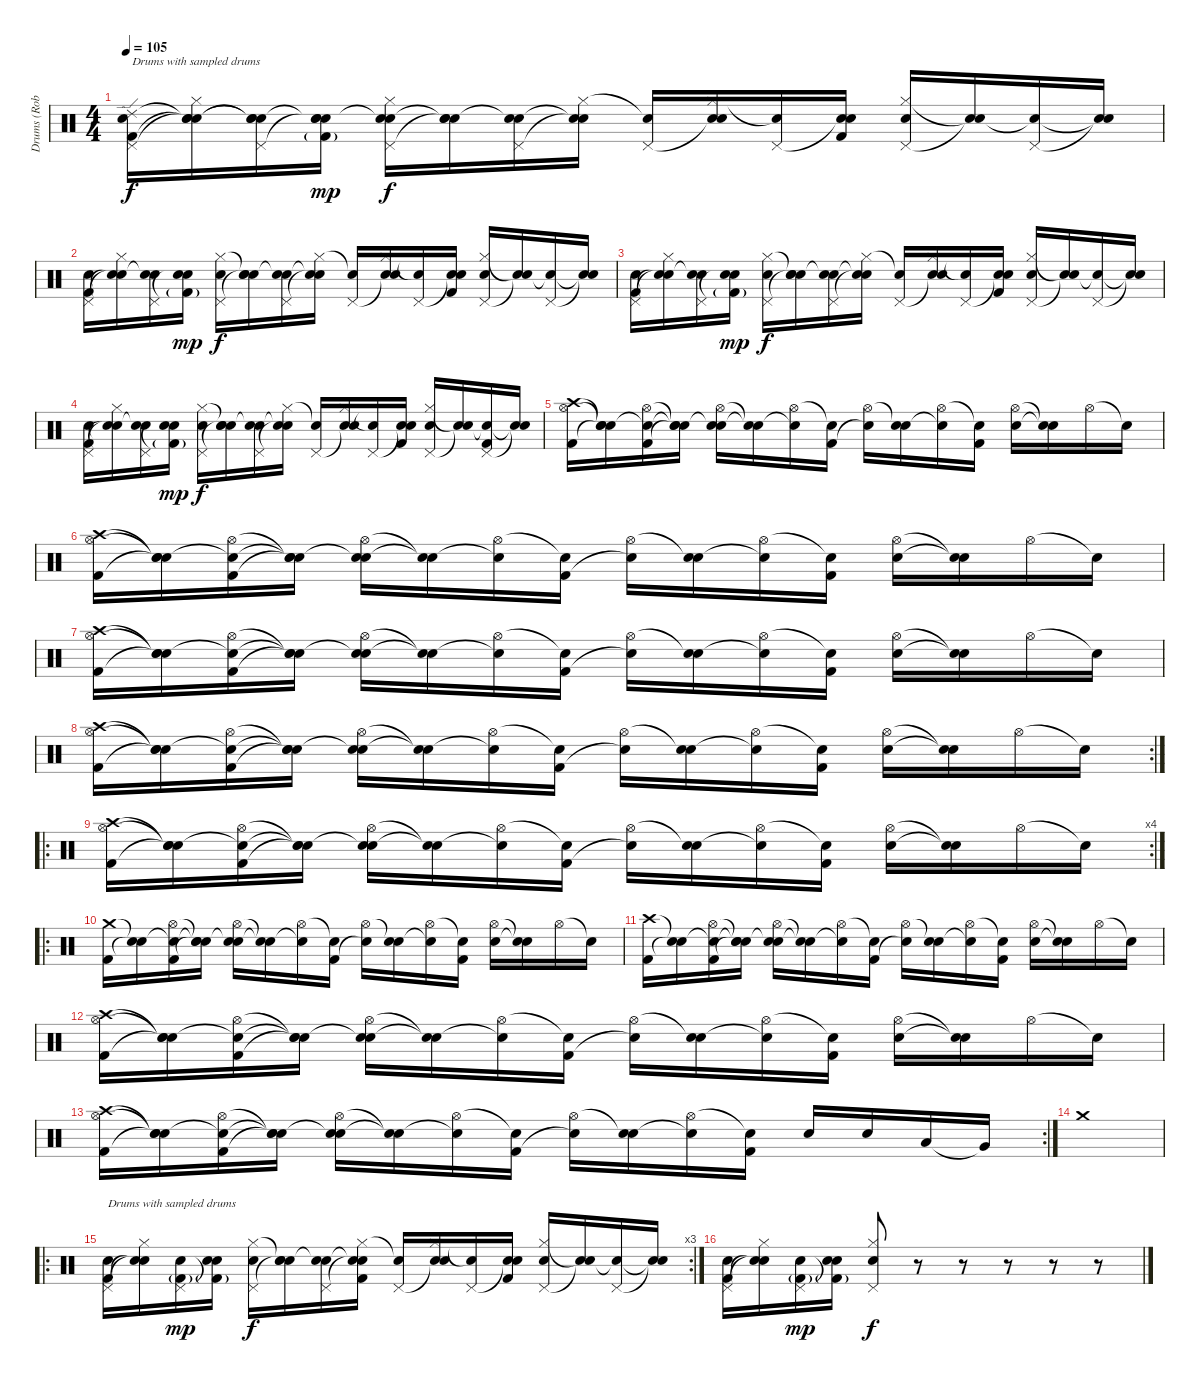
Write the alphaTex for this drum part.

\track ("Drums (Rob Bourdon)" "Drums (Rob") {instrument percussion}
\staff {score}
\articulation defaults
\ts (4 4)
\tempo 105
\clef neutral
\ks c
("Ride (edge) 2" "Pedal Hi-Hat (hit)" "Snare (hit)" "Kick (hit) 2").16{txt "Drums with sampled drums" dy f} ("Snare (hit)"{t} "Snare (hit)"{t} "Hi-Hat (closed)" "Snare (hit)"{t}).16 ("Snare (hit)"{t} "Pedal Hi-Hat (hit)" "Snare (hit)" "Snare (hit)"{t}).16 ("Snare (hit)"{t} "Snare (hit)"{t} "Snare (hit)" "Kick (hit) 2"{g}).16{dy mp} ("Snare (hit)"{t} "Pedal Hi-Hat (hit)" "Hi-Hat (closed)" "Electric Snare (hit)").16{dy f} ("Snare (hit)"{t} "Snare (hit)"{t} "Snare (hit)").16 ("Pedal Hi-Hat (hit)" "Snare (hit)"{t} "Snare (hit)").16 ("Snare (hit)"{t} "Hi-Hat (closed)" "Snare (hit)"{t}).16 ("Pedal Hi-Hat (hit)" "Snare (hit)"{t}).16 ("Snare (hit)"{t} "Hi-Hat (closed)" "Electric Snare (hit)").16 ("Pedal Hi-Hat (hit)" "Snare (hit)"{t}).16 ("Snare (hit)"{t} "Snare (hit)" "Kick (hit) 2").16 ("Pedal Hi-Hat (hit)" "Hi-Hat (closed)" "Electric Snare (hit)").16 ("Snare (hit)"{t} "Snare (hit)"{t}).16 ("Pedal Hi-Hat (hit)" "Snare (hit)"{t}).16 ("Snare (hit)"{t} "Snare (hit)"{t}).16 |
("Pedal Hi-Hat (hit)" "Snare (hit)" "Kick (hit) 2").16 ("Snare (hit)"{t} "Hi-Hat (closed)" "Snare (hit)"{t}).16 ("Pedal Hi-Hat (hit)" "Snare (hit)" "Snare (hit)"{t}).16 ("Snare (hit)"{t} "Snare (hit)" "Kick (hit) 2"{g}).16{dy mp} ("Pedal Hi-Hat (hit)" "Hi-Hat (closed)" "Electric Snare (hit)").16{dy f} ("Snare (hit)"{t} "Snare (hit)"{t} "Snare (hit)").16 ("Pedal Hi-Hat (hit)" "Snare (hit)"{t} "Snare (hit)").16 ("Snare (hit)"{t} "Hi-Hat (closed)" "Snare (hit)"{t}).16 ("Pedal Hi-Hat (hit)" "Snare (hit)"{t}).16 ("Snare (hit)"{t} "Hi-Hat (closed)" "Electric Snare (hit)").16 ("Pedal Hi-Hat (hit)" "Snare (hit)"{t}).16 ("Snare (hit)"{t} "Snare (hit)" "Kick (hit) 2").16 ("Pedal Hi-Hat (hit)" "Hi-Hat (closed)" "Electric Snare (hit)").16 ("Snare (hit)"{t} "Snare (hit)"{t}).16 ("Pedal Hi-Hat (hit)" "Snare (hit)"{t}).16 ("Snare (hit)"{t} "Snare (hit)"{t}).16 |
("Pedal Hi-Hat (hit)" "Snare (hit)" "Kick (hit) 2").16 ("Snare (hit)"{t} "Hi-Hat (closed)" "Snare (hit)"{t}).16 ("Pedal Hi-Hat (hit)" "Snare (hit)" "Snare (hit)"{t}).16 ("Snare (hit)"{t} "Snare (hit)" "Kick (hit) 2"{g}).16{dy mp} ("Pedal Hi-Hat (hit)" "Hi-Hat (closed)" "Electric Snare (hit)").16{dy f} ("Snare (hit)"{t} "Snare (hit)"{t} "Snare (hit)").16 ("Pedal Hi-Hat (hit)" "Snare (hit)"{t} "Snare (hit)").16 ("Snare (hit)"{t} "Hi-Hat (closed)" "Snare (hit)"{t}).16 ("Pedal Hi-Hat (hit)" "Snare (hit)"{t}).16 ("Snare (hit)"{t} "Hi-Hat (closed)" "Electric Snare (hit)").16 ("Pedal Hi-Hat (hit)" "Snare (hit)"{t}).16 ("Snare (hit)"{t} "Snare (hit)" "Kick (hit) 2").16 ("Pedal Hi-Hat (hit)" "Hi-Hat (closed)" "Electric Snare (hit)").16 ("Snare (hit)"{t} "Snare (hit)"{t}).16 ("Pedal Hi-Hat (hit)" "Snare (hit)"{t}).16 ("Snare (hit)"{t} "Snare (hit)"{t}).16 |
("Pedal Hi-Hat (hit)" "Snare (hit)" "Kick (hit) 2").16 ("Snare (hit)"{t} "Hi-Hat (closed)" "Snare (hit)"{t}).16 ("Pedal Hi-Hat (hit)" "Snare (hit)" "Snare (hit)"{t}).16 ("Snare (hit)"{t} "Snare (hit)" "Kick (hit) 2"{g}).16{dy mp} ("Pedal Hi-Hat (hit)" "Hi-Hat (closed)" "Electric Snare (hit)").16{dy f} ("Snare (hit)"{t} "Snare (hit)"{t} "Snare (hit)").16 ("Pedal Hi-Hat (hit)" "Snare (hit)"{t} "Snare (hit)").16 ("Snare (hit)"{t} "Hi-Hat (closed)" "Snare (hit)"{t}).16 ("Pedal Hi-Hat (hit)" "Snare (hit)"{t}).16 ("Snare (hit)"{t} "Hi-Hat (closed)" "Electric Snare (hit)").16 ("Pedal Hi-Hat (hit)" "Snare (hit)"{t}).16 ("Snare (hit)"{t} "Snare (hit)" "Kick (hit) 2").16 ("Pedal Hi-Hat (hit)" "Hi-Hat (closed)" "Electric Snare (hit)").16 ("Snare (hit)"{t} "Snare (hit)"{t}).16 ("Pedal Hi-Hat (hit)" "Snare (hit)"{t} "Kick (hit) 2").16 ("Snare (hit)"{t} "Snare (hit)"{t}).16 |
("Crash high (hit)" "Hi-Hat (open)" "Kick (hit) 2").16 ("Snare (hit)"{t} "Snare (hit)"{t} "Snare (hit)"{t}).16 ("Snare (hit)"{t} "Hi-Hat (open)" "Kick (hit) 2").16 ("Snare (hit)"{t} "Snare (hit)"{t} "Snare (hit)"{t}).16 ("Snare (hit)"{t} "Hi-Hat (open)" "Electric Snare (hit)").16 ("Snare (hit)"{t} "Snare (hit)"{t}).16 ("Hi-Hat (open)" "Snare (hit)"{t}).16 ("Snare (hit)"{t} "Kick (hit) 2").16 ("Hi-Hat (open)" "Snare (hit)"{t}).16 ("Snare (hit)"{t} "Electric Snare (hit)").16 ("Hi-Hat (open)" "Snare (hit)"{t}).16 ("Snare (hit)"{t} "Kick (hit) 2").16 ("Hi-Hat (open)" "Electric Snare (hit)").16 ("Snare (hit)"{t} "Electric Snare (hit)"{t}).16 "Hi-Hat (open)".16 "Snare (hit)"{t}.16 |
("Crash high (hit)" "Hi-Hat (open)" "Kick (hit) 2").16 ("Snare (hit)"{t} "Snare (hit)"{t} "Snare (hit)"{t}).16 ("Snare (hit)"{t} "Hi-Hat (open)" "Kick (hit) 2").16 ("Snare (hit)"{t} "Snare (hit)"{t} "Snare (hit)"{t}).16 ("Snare (hit)"{t} "Hi-Hat (open)" "Electric Snare (hit)").16 ("Snare (hit)"{t} "Snare (hit)"{t}).16 ("Hi-Hat (open)" "Snare (hit)"{t}).16 ("Snare (hit)"{t} "Kick (hit) 2").16 ("Hi-Hat (open)" "Snare (hit)"{t}).16 ("Snare (hit)"{t} "Electric Snare (hit)").16 ("Hi-Hat (open)" "Snare (hit)"{t}).16 ("Snare (hit)"{t} "Kick (hit) 2").16 ("Hi-Hat (open)" "Electric Snare (hit)").16 ("Snare (hit)"{t} "Electric Snare (hit)"{t}).16 "Hi-Hat (open)".16 "Snare (hit)"{t}.16 |
("Crash high (hit)" "Hi-Hat (open)" "Kick (hit) 2").16 ("Snare (hit)"{t} "Snare (hit)"{t} "Snare (hit)"{t}).16 ("Snare (hit)"{t} "Hi-Hat (open)" "Kick (hit) 2").16 ("Snare (hit)"{t} "Snare (hit)"{t} "Snare (hit)"{t}).16 ("Snare (hit)"{t} "Hi-Hat (open)" "Electric Snare (hit)").16 ("Snare (hit)"{t} "Snare (hit)"{t}).16 ("Hi-Hat (open)" "Snare (hit)"{t}).16 ("Snare (hit)"{t} "Kick (hit) 2").16 ("Hi-Hat (open)" "Snare (hit)"{t}).16 ("Snare (hit)"{t} "Electric Snare (hit)").16 ("Hi-Hat (open)" "Snare (hit)"{t}).16 ("Snare (hit)"{t} "Kick (hit) 2").16 ("Hi-Hat (open)" "Electric Snare (hit)").16 ("Snare (hit)"{t} "Electric Snare (hit)"{t}).16 "Hi-Hat (open)".16 "Snare (hit)"{t}.16 |
\rc 2
("Crash high (hit)" "Hi-Hat (open)" "Kick (hit) 2").16 ("Snare (hit)"{t} "Snare (hit)"{t} "Snare (hit)"{t}).16 ("Snare (hit)"{t} "Hi-Hat (open)" "Kick (hit) 2").16 ("Snare (hit)"{t} "Snare (hit)"{t} "Snare (hit)"{t}).16 ("Snare (hit)"{t} "Hi-Hat (open)" "Electric Snare (hit)").16 ("Snare (hit)"{t} "Snare (hit)"{t}).16 ("Hi-Hat (open)" "Snare (hit)"{t}).16 ("Snare (hit)"{t} "Kick (hit) 2").16 ("Hi-Hat (open)" "Snare (hit)"{t}).16 ("Snare (hit)"{t} "Electric Snare (hit)").16 ("Hi-Hat (open)" "Snare (hit)"{t}).16 ("Snare (hit)"{t} "Kick (hit) 2").16 ("Hi-Hat (open)" "Electric Snare (hit)").16 ("Snare (hit)"{t} "Electric Snare (hit)"{t}).16 "Hi-Hat (open)".16 "Snare (hit)"{t}.16 |
\ro
\rc 4
("Crash high (hit)" "Hi-Hat (open)" "Kick (hit) 2").16 ("Snare (hit)"{t} "Snare (hit)"{t} "Snare (hit)"{t}).16 ("Snare (hit)"{t} "Hi-Hat (open)" "Kick (hit) 2").16 ("Snare (hit)"{t} "Snare (hit)"{t} "Snare (hit)"{t}).16 ("Snare (hit)"{t} "Hi-Hat (open)" "Electric Snare (hit)").16 ("Snare (hit)"{t} "Snare (hit)"{t}).16 ("Hi-Hat (open)" "Snare (hit)"{t}).16 ("Snare (hit)"{t} "Kick (hit) 2").16 ("Hi-Hat (open)" "Snare (hit)"{t}).16 ("Snare (hit)"{t} "Electric Snare (hit)").16 ("Hi-Hat (open)" "Snare (hit)"{t}).16 ("Snare (hit)"{t} "Kick (hit) 2").16 ("Hi-Hat (open)" "Electric Snare (hit)").16 ("Snare (hit)"{t} "Electric Snare (hit)"{t}).16 "Hi-Hat (open)".16 "Snare (hit)"{t}.16 |
\ro
("Crash medium (hit)" "Kick (hit) 2").16 ("Snare (hit)"{t} "Snare (hit)"{t}).16 ("Snare (hit)"{t} "Hi-Hat (open)" "Kick (hit) 2").16 ("Snare (hit)"{t} "Snare (hit)"{t} "Snare (hit)"{t}).16 ("Snare (hit)"{t} "Hi-Hat (open)" "Electric Snare (hit)").16 ("Snare (hit)"{t} "Snare (hit)"{t}).16 ("Hi-Hat (open)" "Snare (hit)"{t}).16 ("Snare (hit)"{t} "Kick (hit) 2").16 ("Hi-Hat (open)" "Snare (hit)"{t}).16 ("Snare (hit)"{t} "Electric Snare (hit)").16 ("Hi-Hat (open)" "Snare (hit)"{t}).16 ("Snare (hit)"{t} "Kick (hit) 2").16 ("Hi-Hat (open)" "Electric Snare (hit)").16 ("Snare (hit)"{t} "Electric Snare (hit)"{t}).16 "Hi-Hat (open)".16 "Snare (hit)"{t}.16 |
("Crash high (hit)" "Kick (hit) 2").16 ("Snare (hit)"{t} "Snare (hit)"{t}).16 ("Snare (hit)"{t} "Hi-Hat (open)" "Kick (hit) 2").16 ("Snare (hit)"{t} "Snare (hit)"{t} "Snare (hit)"{t}).16 ("Snare (hit)"{t} "Hi-Hat (open)" "Electric Snare (hit)").16 ("Snare (hit)"{t} "Snare (hit)"{t}).16 ("Hi-Hat (open)" "Snare (hit)"{t}).16 ("Snare (hit)"{t} "Kick (hit) 2").16 ("Hi-Hat (open)" "Snare (hit)"{t}).16 ("Snare (hit)"{t} "Electric Snare (hit)").16 ("Hi-Hat (open)" "Snare (hit)"{t}).16 ("Snare (hit)"{t} "Kick (hit) 2").16 ("Hi-Hat (open)" "Electric Snare (hit)").16 ("Snare (hit)"{t} "Electric Snare (hit)"{t}).16 "Hi-Hat (open)".16 "Snare (hit)"{t}.16 |
("Crash high (hit)" "Hi-Hat (open)" "Kick (hit) 2").16 ("Snare (hit)"{t} "Snare (hit)"{t} "Snare (hit)"{t}).16 ("Snare (hit)"{t} "Hi-Hat (open)" "Kick (hit) 2").16 ("Snare (hit)"{t} "Snare (hit)"{t} "Snare (hit)"{t}).16 ("Snare (hit)"{t} "Hi-Hat (open)" "Electric Snare (hit)").16 ("Snare (hit)"{t} "Snare (hit)"{t}).16 ("Hi-Hat (open)" "Snare (hit)"{t}).16 ("Snare (hit)"{t} "Kick (hit) 2").16 ("Hi-Hat (open)" "Snare (hit)"{t}).16 ("Snare (hit)"{t} "Electric Snare (hit)").16 ("Hi-Hat (open)" "Snare (hit)"{t}).16 ("Snare (hit)"{t} "Kick (hit) 2").16 ("Hi-Hat (open)" "Electric Snare (hit)").16 ("Snare (hit)"{t} "Electric Snare (hit)"{t}).16 "Hi-Hat (open)".16 "Snare (hit)"{t}.16 |
\rc 2
("Crash high (hit)" "Hi-Hat (open)" "Kick (hit) 2").16 ("Snare (hit)"{t} "Snare (hit)"{t} "Snare (hit)"{t}).16 ("Snare (hit)"{t} "Hi-Hat (open)" "Kick (hit) 2").16 ("Snare (hit)"{t} "Snare (hit)"{t} "Snare (hit)"{t}).16 ("Snare (hit)"{t} "Hi-Hat (open)" "Electric Snare (hit)").16 ("Snare (hit)"{t} "Snare (hit)"{t}).16 ("Hi-Hat (open)" "Snare (hit)"{t}).16 ("Snare (hit)"{t} "Kick (hit) 2").16 ("Hi-Hat (open)" "Snare (hit)"{t}).16 ("Snare (hit)"{t} "Electric Snare (hit)").16 ("Hi-Hat (open)" "Snare (hit)"{t}).16 ("Snare (hit)"{t} "Kick (hit) 2").16 "Electric Snare (hit)".16 "Electric Snare (hit)".16 "Low Tom (hit)".16 "Very Low Tom (hit)"{t}.16 |
"Crash medium (hit)".1 |
\ro
\rc 3
("Pedal Hi-Hat (hit)" "Snare (hit)" "Kick (hit) 2").16{txt "Drums with sampled drums"} ("Snare (hit)"{t} "Hi-Hat (closed)" "Snare (hit)"{t}).16 ("Pedal Hi-Hat (hit)" "Snare (hit)" "Kick (hit) 2"{g}).16{dy mp} ("Snare (hit)"{t} "Snare (hit)" "Kick (hit) 2"{g}).16 ("Pedal Hi-Hat (hit)" "Hi-Hat (closed)" "Electric Snare (hit)").16{dy f} ("Snare (hit)"{t} "Snare (hit)"{t} "Snare (hit)").16 ("Pedal Hi-Hat (hit)" "Snare (hit)"{t} "Snare (hit)").16 ("Snare (hit)"{t} "Hi-Hat (closed)" "Snare (hit)"{t} "Kick (hit) 2").16 ("Pedal Hi-Hat (hit)" "Snare (hit)"{t}).16 ("Snare (hit)"{t} "Hi-Hat (closed)" "Electric Snare (hit)").16 ("Pedal Hi-Hat (hit)" "Snare (hit)"{t}).16 ("Snare (hit)"{t} "Snare (hit)" "Kick (hit) 2").16 ("Pedal Hi-Hat (hit)" "Hi-Hat (closed)" "Electric Snare (hit)").16 ("Snare (hit)"{t} "Snare (hit)"{t}).16 ("Pedal Hi-Hat (hit)" "Snare (hit)"{t}).16 ("Snare (hit)"{t} "Snare (hit)"{t}).16 |
("Pedal Hi-Hat (hit)" "Snare (hit)" "Kick (hit) 2").16 ("Snare (hit)"{t} "Hi-Hat (closed)" "Snare (hit)"{t}).16 ("Pedal Hi-Hat (hit)" "Snare (hit)" "Kick (hit) 2"{g}).16{dy mp} ("Snare (hit)"{t} "Snare (hit)" "Kick (hit) 2"{g}).16 ("Pedal Hi-Hat (hit)" "Hi-Hat (closed)" "Electric Snare (hit)").8{dy f} r.8 r.8 r.8 r.8 r.8
